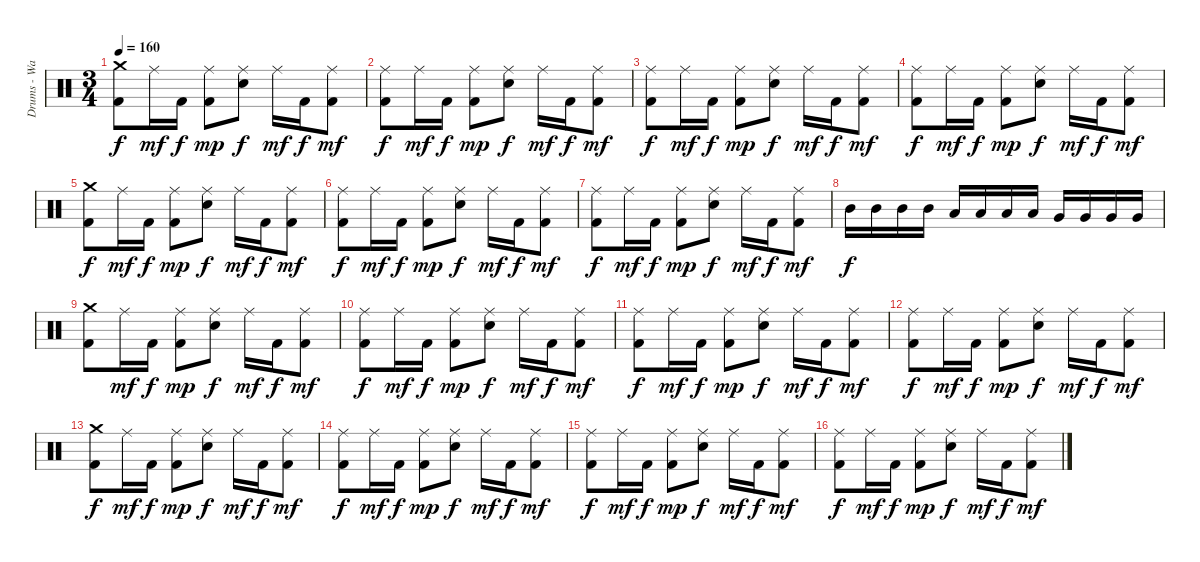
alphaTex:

\track ("Drums - Ward" "Drums - Wa") {instrument percussion}
\staff {score}
\articulation defaults
\ts (3 4)
\tempo 160
\clef neutral
\ks c
("Crash medium (hit)" "Kick (hit) 2").8{dy f} "Ride (middle)".16{dy mf} "Kick (hit) 2".16{dy f} ("Ride (middle)" "Kick (hit) 2").8{dy mp} ("Ride (middle)" "Electric Snare (hit)").8{dy f} "Ride (middle)".16{dy mf} "Kick (hit) 2".16{dy f} ("Ride (middle)" "Kick (hit) 2").8{dy mf} |
("Ride (middle)" "Kick (hit) 2").8{dy f} "Ride (middle)".16{dy mf} "Kick (hit) 2".16{dy f} ("Ride (middle)" "Kick (hit) 2").8{dy mp} ("Ride (middle)" "Electric Snare (hit)").8{dy f} "Ride (middle)".16{dy mf} "Kick (hit) 2".16{dy f} ("Ride (middle)" "Kick (hit) 2").8{dy mf} |
("Ride (middle)" "Kick (hit) 2").8{dy f} "Ride (middle)".16{dy mf} "Kick (hit) 2".16{dy f} ("Ride (middle)" "Kick (hit) 2").8{dy mp} ("Ride (middle)" "Electric Snare (hit)").8{dy f} "Ride (middle)".16{dy mf} "Kick (hit) 2".16{dy f} ("Ride (middle)" "Kick (hit) 2").8{dy mf} |
("Ride (middle)" "Kick (hit) 2").8{dy f} "Ride (middle)".16{dy mf} "Kick (hit) 2".16{dy f} ("Ride (middle)" "Kick (hit) 2").8{dy mp} ("Ride (middle)" "Electric Snare (hit)").8{dy f} "Ride (middle)".16{dy mf} "Kick (hit) 2".16{dy f} ("Ride (middle)" "Kick (hit) 2").8{dy mf} |
("Crash medium (hit)" "Kick (hit) 2").8{dy f} "Ride (middle)".16{dy mf} "Kick (hit) 2".16{dy f} ("Ride (middle)" "Kick (hit) 2").8{dy mp} ("Ride (middle)" "Electric Snare (hit)").8{dy f} "Ride (middle)".16{dy mf} "Kick (hit) 2".16{dy f} ("Ride (middle)" "Kick (hit) 2").8{dy mf} |
("Ride (middle)" "Kick (hit) 2").8{dy f} "Ride (middle)".16{dy mf} "Kick (hit) 2".16{dy f} ("Ride (middle)" "Kick (hit) 2").8{dy mp} ("Ride (middle)" "Electric Snare (hit)").8{dy f} "Ride (middle)".16{dy mf} "Kick (hit) 2".16{dy f} ("Ride (middle)" "Kick (hit) 2").8{dy mf} |
("Ride (middle)" "Kick (hit) 2").8{dy f} "Ride (middle)".16{dy mf} "Kick (hit) 2".16{dy f} ("Ride (middle)" "Kick (hit) 2").8{dy mp} ("Ride (middle)" "Electric Snare (hit)").8{dy f} "Ride (middle)".16{dy mf} "Kick (hit) 2".16{dy f} ("Ride (middle)" "Kick (hit) 2").8{dy mf} |
"Mid Tom (hit)".16{dy f} "Mid Tom (hit)".16 "Mid Tom (hit)".16 "Mid Tom (hit)".16 "Low Tom (hit)".16 "Low Tom (hit)".16 "Low Tom (hit)".16 "Low Tom (hit)".16 "Very Low Tom (hit)".16 "Very Low Tom (hit)".16 "Very Low Tom (hit)".16 "Very Low Tom (hit)".16 |
("Crash medium (hit)" "Kick (hit) 2").8 "Ride (middle)".16{dy mf} "Kick (hit) 2".16{dy f} ("Ride (middle)" "Kick (hit) 2").8{dy mp} ("Ride (middle)" "Electric Snare (hit)").8{dy f} "Ride (middle)".16{dy mf} "Kick (hit) 2".16{dy f} ("Ride (middle)" "Kick (hit) 2").8{dy mf} |
("Ride (middle)" "Kick (hit) 2").8{dy f} "Ride (middle)".16{dy mf} "Kick (hit) 2".16{dy f} ("Ride (middle)" "Kick (hit) 2").8{dy mp} ("Ride (middle)" "Electric Snare (hit)").8{dy f} "Ride (middle)".16{dy mf} "Kick (hit) 2".16{dy f} ("Ride (middle)" "Kick (hit) 2").8{dy mf} |
("Ride (middle)" "Kick (hit) 2").8{dy f} "Ride (middle)".16{dy mf} "Kick (hit) 2".16{dy f} ("Ride (middle)" "Kick (hit) 2").8{dy mp} ("Ride (middle)" "Electric Snare (hit)").8{dy f} "Ride (middle)".16{dy mf} "Kick (hit) 2".16{dy f} ("Ride (middle)" "Kick (hit) 2").8{dy mf} |
("Ride (middle)" "Kick (hit) 2").8{dy f} "Ride (middle)".16{dy mf} "Kick (hit) 2".16{dy f} ("Ride (middle)" "Kick (hit) 2").8{dy mp} ("Ride (middle)" "Electric Snare (hit)").8{dy f} "Ride (middle)".16{dy mf} "Kick (hit) 2".16{dy f} ("Ride (middle)" "Kick (hit) 2").8{dy mf} |
("Crash medium (hit)" "Kick (hit) 2").8{dy f} "Ride (middle)".16{dy mf} "Kick (hit) 2".16{dy f} ("Ride (middle)" "Kick (hit) 2").8{dy mp} ("Ride (middle)" "Electric Snare (hit)").8{dy f} "Ride (middle)".16{dy mf} "Kick (hit) 2".16{dy f} ("Ride (middle)" "Kick (hit) 2").8{dy mf} |
("Ride (middle)" "Kick (hit) 2").8{dy f} "Ride (middle)".16{dy mf} "Kick (hit) 2".16{dy f} ("Ride (middle)" "Kick (hit) 2").8{dy mp} ("Ride (middle)" "Electric Snare (hit)").8{dy f} "Ride (middle)".16{dy mf} "Kick (hit) 2".16{dy f} ("Ride (middle)" "Kick (hit) 2").8{dy mf} |
("Ride (middle)" "Kick (hit) 2").8{dy f} "Ride (middle)".16{dy mf} "Kick (hit) 2".16{dy f} ("Ride (middle)" "Kick (hit) 2").8{dy mp} ("Ride (middle)" "Electric Snare (hit)").8{dy f} "Ride (middle)".16{dy mf} "Kick (hit) 2".16{dy f} ("Ride (middle)" "Kick (hit) 2").8{dy mf} |
("Ride (middle)" "Kick (hit) 2").8{dy f} "Ride (middle)".16{dy mf} "Kick (hit) 2".16{dy f} ("Ride (middle)" "Kick (hit) 2").8{dy mp} ("Ride (middle)" "Electric Snare (hit)").8{dy f} "Ride (middle)".16{dy mf} "Kick (hit) 2".16{dy f} ("Ride (middle)" "Kick (hit) 2").8{dy mf}
